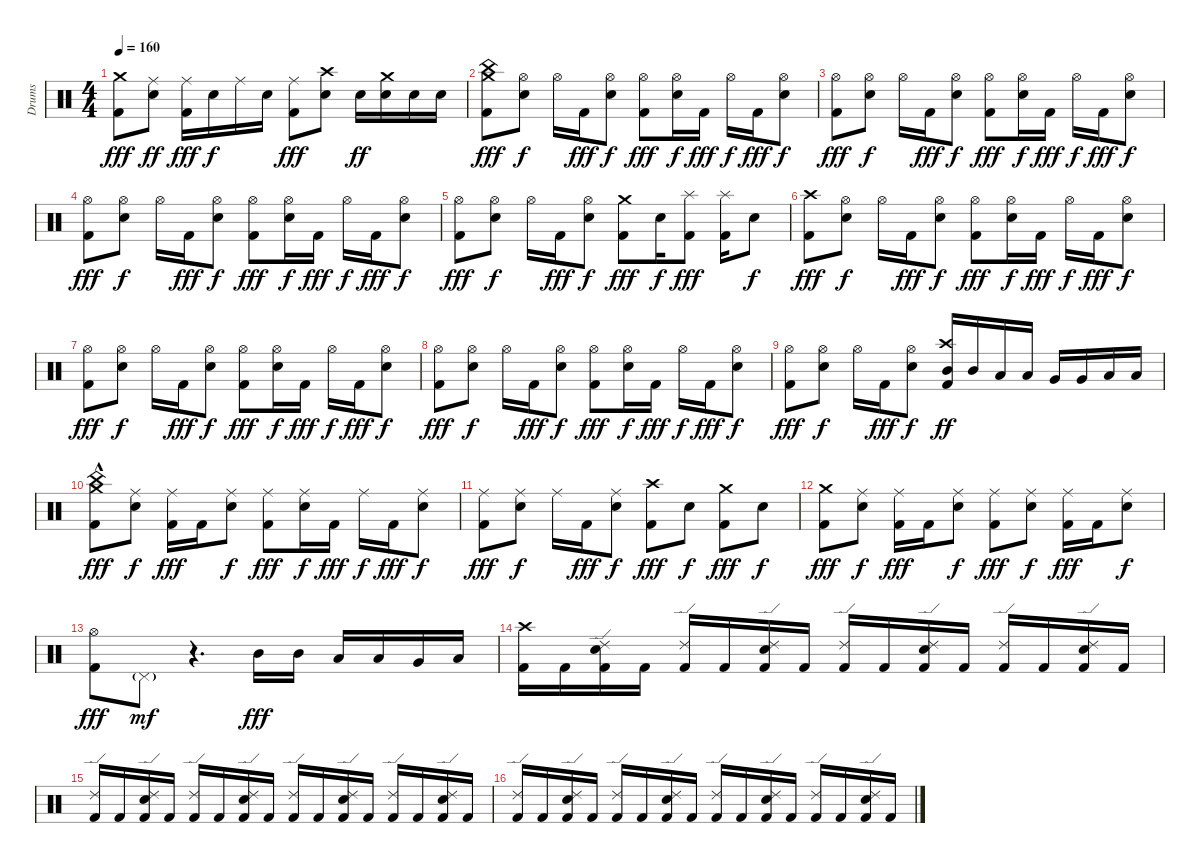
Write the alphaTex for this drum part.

\track ("Drums" "Drums") {instrument percussion}
\staff {score}
\articulation defaults
\ts (4 4)
\tempo 160
\clef neutral
\ks c
("Crash medium (hit)" "Kick (hit) 2").8{dy fff} ("Ride (middle)" "Electric Snare (hit)").8{dy ff} ("Ride (middle)" "Kick (hit) 2").16{dy fff} "Electric Snare (hit)".16{dy f} "Ride (middle)".16 "Electric Snare (hit)".16 ("Ride (middle)" "Kick (hit) 2").8{dy fff} ("Crash high (hit)" "Electric Snare (hit)").8 "Electric Snare (hit)".16{dy ff} ("Crash medium (hit)" "Electric Snare (hit)").16 "Electric Snare (hit)".16 "Electric Snare (hit)".16 |
("China (hit)" "Crash medium (hit)" "Kick (hit) 2").8{dy fff} ("Hi-Hat (open)" "Electric Snare (hit)").8{dy f} "Hi-Hat (open)".16 "Kick (hit) 2".16{dy fff} ("Hi-Hat (open)" "Electric Snare (hit)").8{dy f} ("Hi-Hat (open)" "Kick (hit) 2").8{dy fff} ("Hi-Hat (open)" "Electric Snare (hit)").16{dy f} "Kick (hit) 2".16{dy fff} "Hi-Hat (open)".16{dy f} "Kick (hit) 2".16{dy fff} ("Hi-Hat (open)" "Electric Snare (hit)").8{dy f} |
("Hi-Hat (open)" "Kick (hit) 2").8{dy fff} ("Hi-Hat (open)" "Electric Snare (hit)").8{dy f} "Hi-Hat (open)".16 "Kick (hit) 2".16{dy fff} ("Hi-Hat (open)" "Electric Snare (hit)").8{dy f} ("Hi-Hat (open)" "Kick (hit) 2").8{dy fff} ("Hi-Hat (open)" "Electric Snare (hit)").16{dy f} "Kick (hit) 2".16{dy fff} "Hi-Hat (open)".16{dy f} "Kick (hit) 2".16{dy fff} ("Hi-Hat (open)" "Electric Snare (hit)").8{dy f} |
("Hi-Hat (open)" "Kick (hit) 2").8{dy fff} ("Hi-Hat (open)" "Electric Snare (hit)").8{dy f} "Hi-Hat (open)".16 "Kick (hit) 2".16{dy fff} ("Hi-Hat (open)" "Electric Snare (hit)").8{dy f} ("Hi-Hat (open)" "Kick (hit) 2").8{dy fff} ("Hi-Hat (open)" "Electric Snare (hit)").16{dy f} "Kick (hit) 2".16{dy fff} "Hi-Hat (open)".16{dy f} "Kick (hit) 2".16{dy fff} ("Hi-Hat (open)" "Electric Snare (hit)").8{dy f} |
("Hi-Hat (open)" "Kick (hit) 2").8{dy fff} ("Hi-Hat (open)" "Electric Snare (hit)").8{dy f} "Hi-Hat (open)".16 "Kick (hit) 2".16{dy fff} ("Hi-Hat (open)" "Electric Snare (hit)").8{dy f} ("Crash medium (hit)" "Kick (hit) 2").8{dy fff} "Electric Snare (hit)".16{dy f} ("Splash (hit)" "Kick (hit) 2").8{dy fff} ("Splash (hit)" "Kick (hit) 2").16 "Electric Snare (hit)".8{dy f} |
("Crash high (hit)" "Kick (hit) 2").8{dy fff} ("Hi-Hat (open)" "Electric Snare (hit)").8{dy f} "Hi-Hat (open)".16 "Kick (hit) 2".16{dy fff} ("Hi-Hat (open)" "Electric Snare (hit)").8{dy f} ("Hi-Hat (open)" "Kick (hit) 2").8{dy fff} ("Hi-Hat (open)" "Electric Snare (hit)").16{dy f} "Kick (hit) 2".16{dy fff} "Hi-Hat (open)".16{dy f} "Kick (hit) 2".16{dy fff} ("Hi-Hat (open)" "Electric Snare (hit)").8{dy f} |
("Hi-Hat (open)" "Kick (hit) 2").8{dy fff} ("Hi-Hat (open)" "Electric Snare (hit)").8{dy f} "Hi-Hat (open)".16 "Kick (hit) 2".16{dy fff} ("Hi-Hat (open)" "Electric Snare (hit)").8{dy f} ("Hi-Hat (open)" "Kick (hit) 2").8{dy fff} ("Hi-Hat (open)" "Electric Snare (hit)").16{dy f} "Kick (hit) 2".16{dy fff} "Hi-Hat (open)".16{dy f} "Kick (hit) 2".16{dy fff} ("Hi-Hat (open)" "Electric Snare (hit)").8{dy f} |
("Hi-Hat (open)" "Kick (hit) 2").8{dy fff} ("Hi-Hat (open)" "Electric Snare (hit)").8{dy f} "Hi-Hat (open)".16 "Kick (hit) 2".16{dy fff} ("Hi-Hat (open)" "Electric Snare (hit)").8{dy f} ("Hi-Hat (open)" "Kick (hit) 2").8{dy fff} ("Hi-Hat (open)" "Electric Snare (hit)").16{dy f} "Kick (hit) 2".16{dy fff} "Hi-Hat (open)".16{dy f} "Kick (hit) 2".16{dy fff} ("Hi-Hat (open)" "Electric Snare (hit)").8{dy f} |
("Hi-Hat (open)" "Kick (hit) 2").8{dy fff} ("Hi-Hat (open)" "Electric Snare (hit)").8{dy f} "Hi-Hat (open)".16 "Kick (hit) 2".16{dy fff} ("Hi-Hat (open)" "Electric Snare (hit)").8{dy f} ("Crash high (hit)" "Mid Tom (hit)" "Kick (hit) 2").16{dy ff} "Mid Tom (hit)".16 "Low Tom (hit)".16 "Low Tom (hit)".16 "Very Low Tom (hit)".16 "Very Low Tom (hit)".16 "Low Floor Tom (hit)".16 "Low Floor Tom (hit)".16 |
("Crash medium (hit)" "China (hit)"{hac} "Kick (hit) 2").8{dy fff} ("Ride (middle)" "Electric Snare (hit)").8{dy f} ("Ride (middle)" "Kick (hit) 2").16{dy fff} "Kick (hit) 2".16 ("Ride (middle)" "Electric Snare (hit)").8{dy f} ("Ride (middle)" "Kick (hit) 2").8{dy fff} ("Ride (middle)" "Electric Snare (hit)").16{dy f} "Kick (hit) 2".16{dy fff} "Ride (middle)".16{dy f} "Kick (hit) 2".16{dy fff} ("Ride (middle)" "Electric Snare (hit)").8{dy f} |
("Ride (middle)" "Kick (hit) 2").8{dy fff} ("Ride (middle)" "Electric Snare (hit)").8{dy f} "Ride (middle)".16 "Kick (hit) 2".16{dy fff} ("Ride (middle)" "Electric Snare (hit)").8{dy f} ("Crash high (hit)" "Kick (hit) 2").8{dy fff} "Electric Snare (hit)".8{dy f} ("Crash medium (hit)" "Kick (hit) 2").8{dy fff} "Electric Snare (hit)".8{dy f} |
("Crash medium (hit)" "Kick (hit) 2").8{dy fff} ("Ride (middle)" "Electric Snare (hit)").8{dy f} ("Ride (middle)" "Kick (hit) 2").16{dy fff} "Kick (hit) 2".16 ("Ride (middle)" "Electric Snare (hit)").8{dy f} ("Ride (middle)" "Kick (hit) 2").8{dy fff} ("Ride (middle)" "Electric Snare (hit)").8{dy f} ("Ride (middle)" "Kick (hit) 2").16{dy fff} "Kick (hit) 2".16 ("Ride (middle)" "Electric Snare (hit)").8{dy f} |
("Hi-Hat (open)" "Kick (hit) 2").8{dy fff} "Pedal Hi-Hat (hit)"{g}.8{dy mf} r.4{d} "Mid Tom (hit)".16{dy fff} "Mid Tom (hit)".16 "Low Tom (hit)".16 "Low Tom (hit)".16 "Very Low Tom (hit)".16 "Low Floor Tom (hit)".16 |
("Crash high (hit)" "Kick (hit) 2").16 "Kick (hit) 2".16 ("Ride (edge) 2" "Electric Snare (hit)" "Kick (hit) 2").16 "Kick (hit) 2".16 ("Ride (edge) 2" "Kick (hit) 2").16 "Kick (hit) 2".16 ("Ride (edge) 2" "Electric Snare (hit)" "Kick (hit) 2").16 "Kick (hit) 2".16 ("Ride (edge) 2" "Kick (hit) 2").16 "Kick (hit) 2".16 ("Ride (edge) 2" "Electric Snare (hit)" "Kick (hit) 2").16 "Kick (hit) 2".16 ("Ride (edge) 2" "Kick (hit) 2").16 "Kick (hit) 2".16 ("Ride (edge) 2" "Electric Snare (hit)" "Kick (hit) 2").16 "Kick (hit) 2".16 |
("Ride (edge) 2" "Kick (hit) 2").16 "Kick (hit) 2".16 ("Ride (edge) 2" "Electric Snare (hit)" "Kick (hit) 2").16 "Kick (hit) 2".16 ("Ride (edge) 2" "Kick (hit) 2").16 "Kick (hit) 2".16 ("Ride (edge) 2" "Electric Snare (hit)" "Kick (hit) 2").16 "Kick (hit) 2".16 ("Ride (edge) 2" "Kick (hit) 2").16 "Kick (hit) 2".16 ("Ride (edge) 2" "Electric Snare (hit)" "Kick (hit) 2").16 "Kick (hit) 2".16 ("Ride (edge) 2" "Kick (hit) 2").16 "Kick (hit) 2".16 ("Ride (edge) 2" "Electric Snare (hit)" "Kick (hit) 2").16 "Kick (hit) 2".16 |
("Ride (edge) 2" "Kick (hit) 2").16 "Kick (hit) 2".16 ("Ride (edge) 2" "Electric Snare (hit)" "Kick (hit) 2").16 "Kick (hit) 2".16 ("Ride (edge) 2" "Kick (hit) 2").16 "Kick (hit) 2".16 ("Ride (edge) 2" "Electric Snare (hit)" "Kick (hit) 2").16 "Kick (hit) 2".16 ("Ride (edge) 2" "Kick (hit) 2").16 "Kick (hit) 2".16 ("Ride (edge) 2" "Electric Snare (hit)" "Kick (hit) 2").16 "Kick (hit) 2".16 ("Ride (edge) 2" "Kick (hit) 2").16 "Kick (hit) 2".16 ("Ride (edge) 2" "Electric Snare (hit)" "Kick (hit) 2").16 "Kick (hit) 2".16
